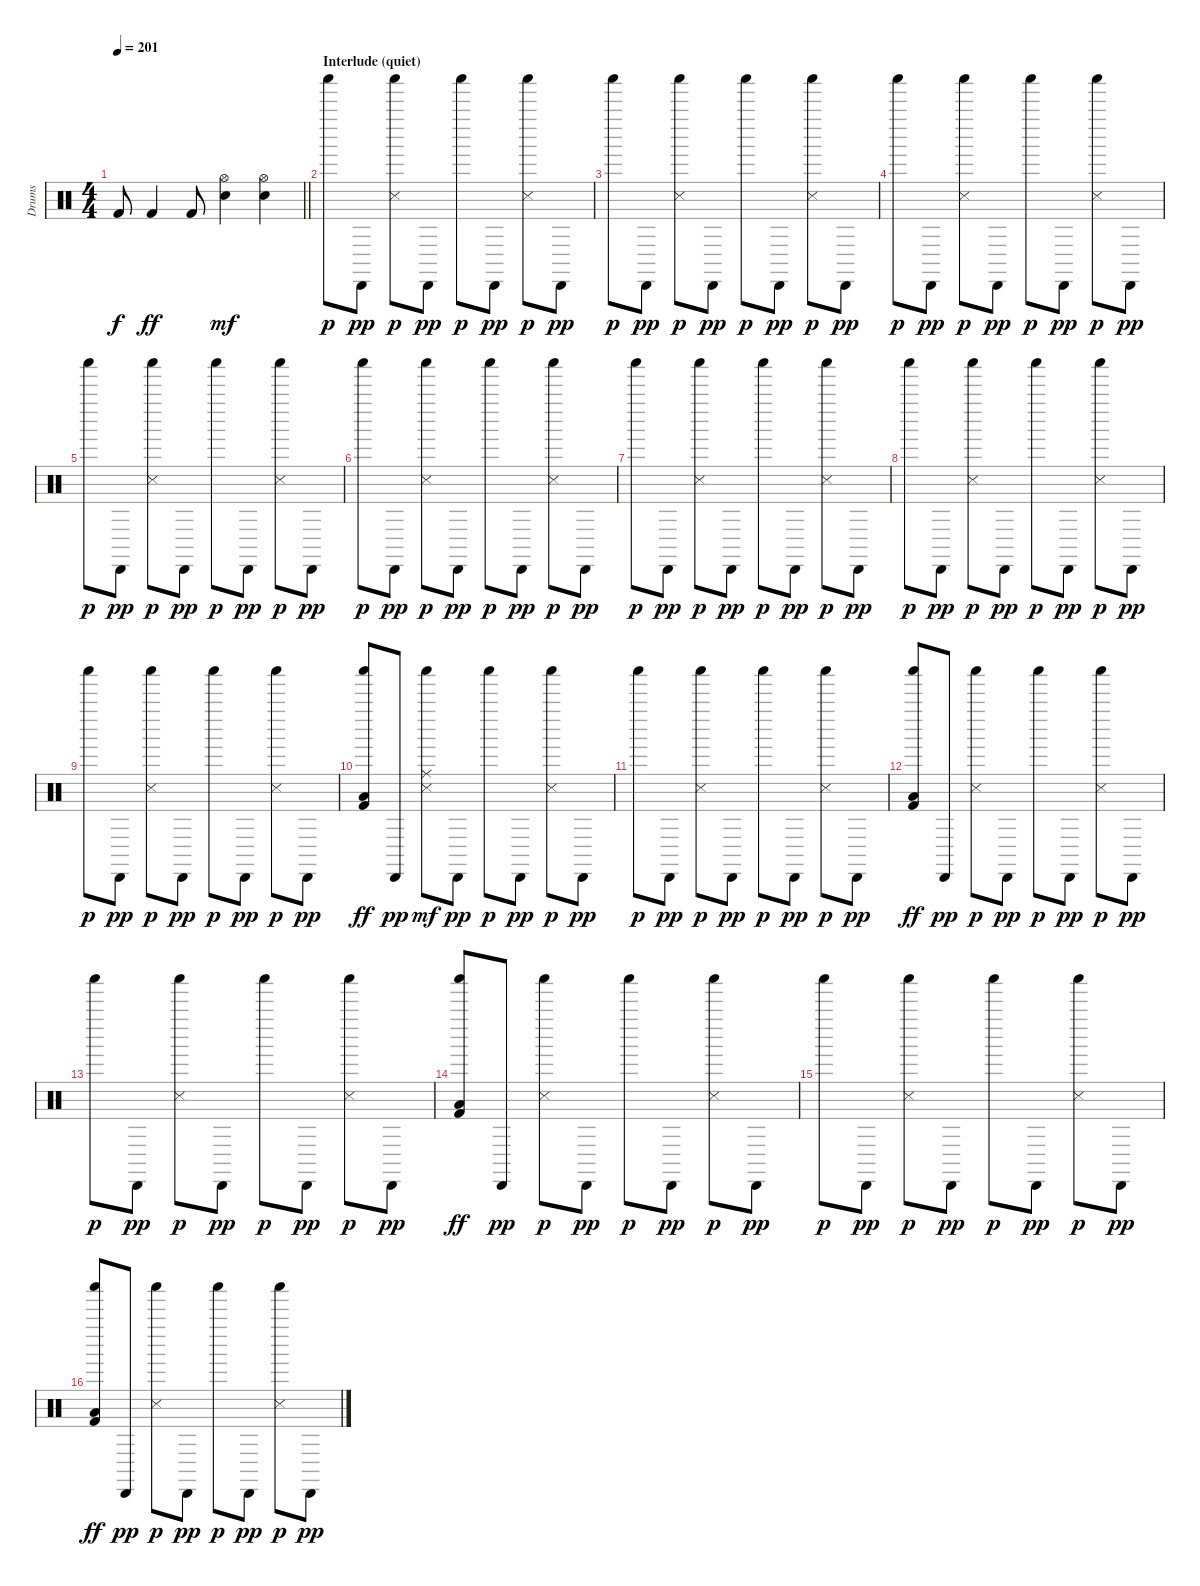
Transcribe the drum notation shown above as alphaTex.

\track ("Drums" "Drums") {instrument percussion}
\staff {score}
\articulation defaults
\ts (4 4)
\tempo 201
\clef neutral
\barLineRight lightlight
\ks c "Kick (hit) 2"{t}.8{dy f} "Kick (hit) 2".4{dy ff} "Kick (hit) 2".8
("Hi-Hat (open)" "Snare (hit) 2").4{dy mf} ("Hi-Hat (open)" "Snare (hit) 2").4 |
\section ("" "Interlude (quiet)")
"Shaker (hit)".8{dy p} "Cabasa (hit)".8{dy pp} ("Shaker (hit)" "Snare (side stick) 3").8{dy p} "Cabasa (hit)".8{dy pp} "Shaker (hit)".8{dy p} "Cabasa (hit)".8{dy pp} ("Shaker (hit)" "Snare (side stick) 3").8{dy p} "Cabasa (hit)".8{dy pp} |
"Shaker (hit)".8{dy p} "Cabasa (hit)".8{dy pp} ("Shaker (hit)" "Snare (side stick) 3").8{dy p} "Cabasa (hit)".8{dy pp} "Shaker (hit)".8{dy p} "Cabasa (hit)".8{dy pp} ("Shaker (hit)" "Snare (side stick) 3").8{dy p} "Cabasa (hit)".8{dy pp} |
"Shaker (hit)".8{dy p} "Cabasa (hit)".8{dy pp} ("Shaker (hit)" "Snare (side stick) 3").8{dy p} "Cabasa (hit)".8{dy pp} "Shaker (hit)".8{dy p} "Cabasa (hit)".8{dy pp} ("Shaker (hit)" "Snare (side stick) 3").8{dy p} "Cabasa (hit)".8{dy pp} |
"Shaker (hit)".8{dy p} "Cabasa (hit)".8{dy pp} ("Shaker (hit)" "Snare (side stick) 3").8{dy p} "Cabasa (hit)".8{dy pp} "Shaker (hit)".8{dy p} "Cabasa (hit)".8{dy pp} ("Shaker (hit)" "Snare (side stick) 3").8{dy p} "Cabasa (hit)".8{dy pp} |
"Shaker (hit)".8{dy p} "Cabasa (hit)".8{dy pp} ("Shaker (hit)" "Snare (side stick) 3").8{dy p} "Cabasa (hit)".8{dy pp} "Shaker (hit)".8{dy p} "Cabasa (hit)".8{dy pp} ("Shaker (hit)" "Snare (side stick) 3").8{dy p} "Cabasa (hit)".8{dy pp} |
"Shaker (hit)".8{dy p} "Cabasa (hit)".8{dy pp} ("Shaker (hit)" "Snare (side stick) 3").8{dy p} "Cabasa (hit)".8{dy pp} "Shaker (hit)".8{dy p} "Cabasa (hit)".8{dy pp} ("Shaker (hit)" "Snare (side stick) 3").8{dy p} "Cabasa (hit)".8{dy pp} |
"Shaker (hit)".8{dy p} "Cabasa (hit)".8{dy pp} ("Shaker (hit)" "Snare (side stick) 3").8{dy p} "Cabasa (hit)".8{dy pp} "Shaker (hit)".8{dy p} "Cabasa (hit)".8{dy pp} ("Shaker (hit)" "Snare (side stick) 3").8{dy p} "Cabasa (hit)".8{dy pp} |
"Shaker (hit)".8{dy p} "Cabasa (hit)".8{dy pp} ("Shaker (hit)" "Snare (side stick) 3").8{dy p} "Cabasa (hit)".8{dy pp} "Shaker (hit)".8{dy p} "Cabasa (hit)".8{dy pp} ("Shaker (hit)" "Snare (side stick) 3").8{dy p} "Cabasa (hit)".8{dy pp} |
("Shaker (hit)" "Low Floor Tom (hit)" "Kick (hit) 2").8{dy ff} "Cabasa (hit)".8{dy pp} ("Shaker (hit)" "Ride (middle)" "Snare (side stick) 3").8{dy mf} "Cabasa (hit)".8{dy pp} "Shaker (hit)".8{dy p} "Cabasa (hit)".8{dy pp} ("Shaker (hit)" "Snare (side stick) 3").8{dy p} "Cabasa (hit)".8{dy pp} |
"Shaker (hit)".8{dy p} "Cabasa (hit)".8{dy pp} ("Shaker (hit)" "Snare (side stick) 3").8{dy p} "Cabasa (hit)".8{dy pp} "Shaker (hit)".8{dy p} "Cabasa (hit)".8{dy pp} ("Shaker (hit)" "Snare (side stick) 3").8{dy p} "Cabasa (hit)".8{dy pp} |
("Shaker (hit)" "Low Floor Tom (hit)" "Kick (hit) 2").8{dy ff} "Cabasa (hit)".8{dy pp} ("Shaker (hit)" "Snare (side stick) 3").8{dy p} "Cabasa (hit)".8{dy pp} "Shaker (hit)".8{dy p} "Cabasa (hit)".8{dy pp} ("Shaker (hit)" "Snare (side stick) 3").8{dy p} "Cabasa (hit)".8{dy pp} |
"Shaker (hit)".8{dy p} "Cabasa (hit)".8{dy pp} ("Shaker (hit)" "Snare (side stick) 3").8{dy p} "Cabasa (hit)".8{dy pp} "Shaker (hit)".8{dy p} "Cabasa (hit)".8{dy pp} ("Shaker (hit)" "Snare (side stick) 3").8{dy p} "Cabasa (hit)".8{dy pp} |
("Shaker (hit)" "Low Floor Tom (hit)" "Kick (hit) 2").8{dy ff} "Cabasa (hit)".8{dy pp} ("Shaker (hit)" "Snare (side stick) 3").8{dy p} "Cabasa (hit)".8{dy pp} "Shaker (hit)".8{dy p} "Cabasa (hit)".8{dy pp} ("Shaker (hit)" "Snare (side stick) 3").8{dy p} "Cabasa (hit)".8{dy pp} |
"Shaker (hit)".8{dy p} "Cabasa (hit)".8{dy pp} ("Shaker (hit)" "Snare (side stick) 3").8{dy p} "Cabasa (hit)".8{dy pp} "Shaker (hit)".8{dy p} "Cabasa (hit)".8{dy pp} ("Shaker (hit)" "Snare (side stick) 3").8{dy p} "Cabasa (hit)".8{dy pp} |
("Shaker (hit)" "Low Floor Tom (hit)" "Kick (hit) 2").8{dy ff} "Cabasa (hit)".8{dy pp} ("Shaker (hit)" "Snare (side stick) 3").8{dy p} "Cabasa (hit)".8{dy pp} "Shaker (hit)".8{dy p} "Cabasa (hit)".8{dy pp} ("Shaker (hit)" "Snare (side stick) 3").8{dy p} "Cabasa (hit)".8{dy pp}
